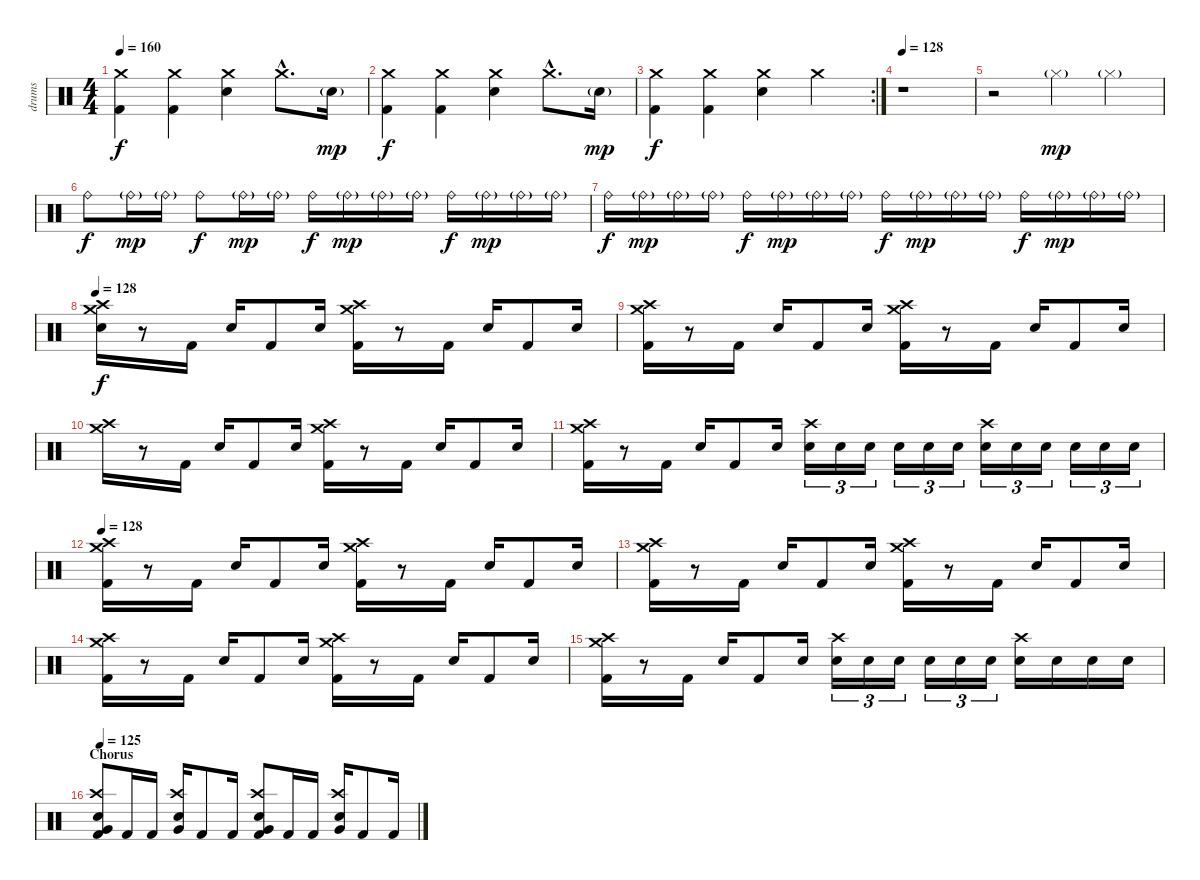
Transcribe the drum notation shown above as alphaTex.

\track ("drums" "drums") {instrument percussion}
\staff {score}
\articulation defaults
\ts (4 4)
\tempo 160
\clef neutral
\ks c
("Crash medium (hit)" "Kick (hit) 2").4{dy f} ("Crash medium (hit)" "Kick (hit) 2").4 ("Crash medium (hit)" "Electric Snare (hit)").4 "Crash medium (hit)"{hac}.8{d} "Electric Snare (hit)"{g}.16{dy mp} |
("Crash medium (hit)" "Kick (hit) 2").4{dy f} ("Crash medium (hit)" "Kick (hit) 2").4 ("Crash medium (hit)" "Electric Snare (hit)").4 "Crash medium (hit)"{hac}.8{d} "Electric Snare (hit)"{g}.16{dy mp} |
\rc 2
("Crash medium (hit)" "Kick (hit) 2").4{dy f} ("Crash medium (hit)" "Kick (hit) 2").4 ("Crash medium (hit)" "Electric Snare (hit)").4 "Crash medium (hit)".4 |
\tempo 128
r.1 |
r.2 "Hi-Hat (closed)"{g}.4{dy mp} "Hi-Hat (closed)"{g}.4 |
"Ride (bell)".8{dy f} "Ride (bell)"{g}.16{dy mp} "Ride (bell)"{g}.16 "Ride (bell)".8{dy f} "Ride (bell)"{g}.16{dy mp} "Ride (bell)"{g}.16 "Ride (bell)".16{dy f} "Ride (bell)"{g}.16{dy mp} "Ride (bell)"{g}.16 "Ride (bell)"{g}.16 "Ride (bell)".16{dy f} "Ride (bell)"{g}.16{dy mp} "Ride (bell)"{g}.16 "Ride (bell)"{g}.16 |
"Ride (bell)".16{dy f} "Ride (bell)"{g}.16{dy mp} "Ride (bell)"{g}.16 "Ride (bell)"{g}.16 "Ride (bell)".16{dy f} "Ride (bell)"{g}.16{dy mp} "Ride (bell)"{g}.16 "Ride (bell)"{g}.16 "Ride (bell)".16{dy f} "Ride (bell)"{g}.16{dy mp} "Ride (bell)"{g}.16 "Ride (bell)"{g}.16 "Ride (bell)".16{dy f} "Ride (bell)"{g}.16{dy mp} "Ride (bell)"{g}.16 "Ride (bell)"{g}.16 |
\tempo 128
("Crash high (hit)" "Crash medium (hit)" "Electric Snare (hit)").16{dy f} r.8 "Kick (hit) 2".16 "Electric Snare (hit)".16 "Kick (hit) 2".8 "Electric Snare (hit)".16 ("Crash high (hit)" "Crash medium (hit)" "Kick (hit) 2").16 r.8 "Kick (hit) 2".16 "Electric Snare (hit)".16 "Kick (hit) 2".8 "Electric Snare (hit)".16 |
("Crash high (hit)" "Crash medium (hit)" "Kick (hit) 2").16 r.8 "Kick (hit) 2".16 "Electric Snare (hit)".16 "Kick (hit) 2".8 "Electric Snare (hit)".16 ("Crash high (hit)" "Crash medium (hit)" "Kick (hit) 2").16 r.8 "Kick (hit) 2".16 "Electric Snare (hit)".16 "Kick (hit) 2".8 "Electric Snare (hit)".16 |
("Crash high (hit)" "Crash medium (hit)").16 r.8 "Kick (hit) 2".16 "Electric Snare (hit)".16 "Kick (hit) 2".8 "Electric Snare (hit)".16 ("Crash high (hit)" "Crash medium (hit)" "Kick (hit) 2").16 r.8 "Kick (hit) 2".16 "Electric Snare (hit)".16 "Kick (hit) 2".8 "Electric Snare (hit)".16 |
("Crash high (hit)" "Crash medium (hit)" "Kick (hit) 2").16 r.8 "Kick (hit) 2".16 "Electric Snare (hit)".16 "Kick (hit) 2".8 "Electric Snare (hit)".16 ("Crash high (hit)" "Electric Snare (hit)").16{tu (3 2)} "Electric Snare (hit)".16{tu (3 2)} "Electric Snare (hit)".16{tu (3 2)} "Electric Snare (hit)".16{tu (3 2)} "Electric Snare (hit)".16{tu (3 2)} "Electric Snare (hit)".16{tu (3 2)} ("Crash high (hit)" "Electric Snare (hit)").16{tu (3 2)} "Electric Snare (hit)".16{tu (3 2)} "Electric Snare (hit)".16{tu (3 2)} "Electric Snare (hit)".16{tu (3 2)} "Electric Snare (hit)".16{tu (3 2)} "Electric Snare (hit)".16{tu (3 2)} |
\tempo 128
("Crash high (hit)" "Crash medium (hit)" "Kick (hit) 2").16 r.8 "Kick (hit) 2".16 "Electric Snare (hit)".16 "Kick (hit) 2".8 "Electric Snare (hit)".16 ("Crash high (hit)" "Crash medium (hit)" "Kick (hit) 2").16 r.8 "Kick (hit) 2".16 "Electric Snare (hit)".16 "Kick (hit) 2".8 "Electric Snare (hit)".16 |
("Crash high (hit)" "Crash medium (hit)" "Kick (hit) 2").16 r.8 "Kick (hit) 2".16 "Electric Snare (hit)".16 "Kick (hit) 2".8 "Electric Snare (hit)".16 ("Crash high (hit)" "Crash medium (hit)" "Kick (hit) 2").16 r.8 "Kick (hit) 2".16 "Electric Snare (hit)".16 "Kick (hit) 2".8 "Electric Snare (hit)".16 |
("Crash high (hit)" "Crash medium (hit)" "Kick (hit) 2").16 r.8 "Kick (hit) 2".16 "Electric Snare (hit)".16 "Kick (hit) 2".8 "Electric Snare (hit)".16 ("Crash high (hit)" "Crash medium (hit)" "Kick (hit) 2").16 r.8 "Kick (hit) 2".16 "Electric Snare (hit)".16 "Kick (hit) 2".8 "Electric Snare (hit)".16 |
("Crash high (hit)" "Crash medium (hit)" "Kick (hit) 2").16 r.8 "Kick (hit) 2".16 "Electric Snare (hit)".16 "Kick (hit) 2".8 "Electric Snare (hit)".16 ("Crash high (hit)" "Electric Snare (hit)").16{tu (3 2)} "Electric Snare (hit)".16{tu (3 2)} "Electric Snare (hit)".16{tu (3 2)} "Electric Snare (hit)".16{tu (3 2)} "Electric Snare (hit)".16{tu (3 2)} "Electric Snare (hit)".16{tu (3 2)} ("Crash high (hit)" "Electric Snare (hit)").16 "Electric Snare (hit)".16 "Electric Snare (hit)".16 "Electric Snare (hit)".16 |
\section ("" "Chorus")
\tempo 125
("Crash high (hit)" "Electric Snare (hit)" "Very Low Tom (hit)" "Kick (hit) 2").8 "Kick (hit) 2".16 "Kick (hit) 2".16 ("Crash high (hit)" "Electric Snare (hit)" "Very Low Tom (hit)").16 "Kick (hit) 2".8 "Kick (hit) 2".16 ("Crash high (hit)" "Electric Snare (hit)" "Very Low Tom (hit)" "Kick (hit) 2").8 "Kick (hit) 2".16 "Kick (hit) 2".16 ("Crash high (hit)" "Electric Snare (hit)" "Very Low Tom (hit)").16 "Kick (hit) 2".8 "Kick (hit) 2".16
